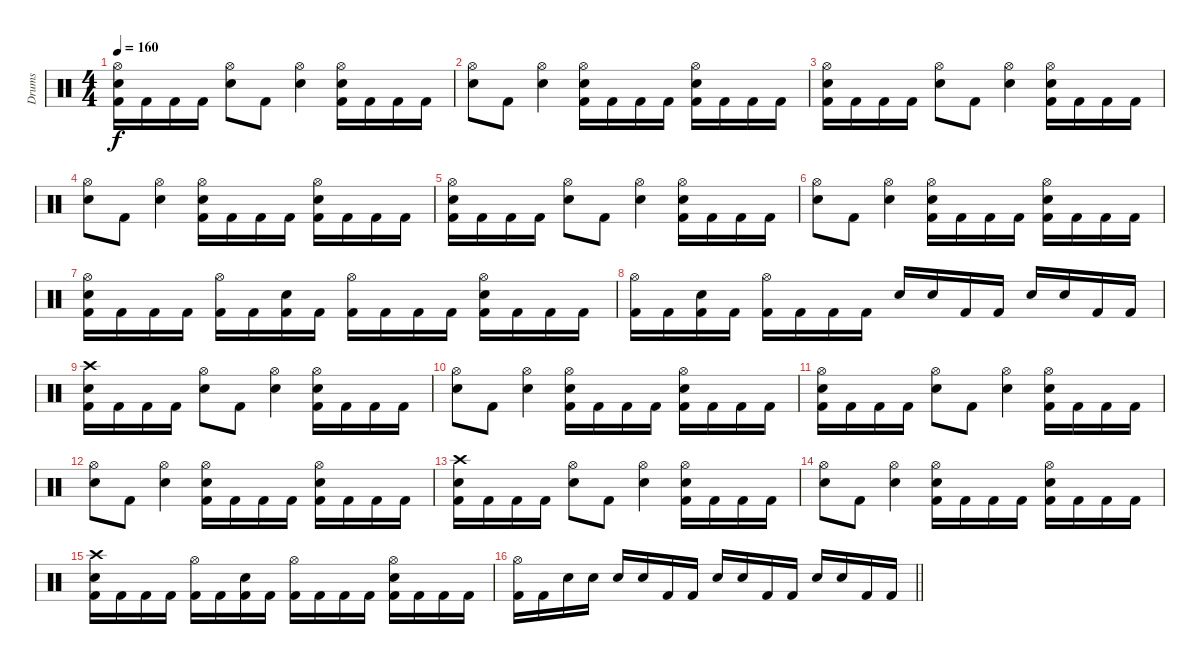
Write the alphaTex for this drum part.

\track ("Drums" "Drums") {instrument percussion}
\staff {score}
\articulation defaults
\ts (4 4)
\tempo 160
\clef neutral
\ks c
("Hi-Hat (open)" "Electric Snare (hit)" "Kick (hit) 2").16{dy f} "Kick (hit) 2".16 "Kick (hit) 2".16 "Kick (hit) 2".16 ("Hi-Hat (open)" "Electric Snare (hit)").8 "Kick (hit) 2".8 ("Hi-Hat (open)" "Electric Snare (hit)").4 ("Hi-Hat (open)" "Electric Snare (hit)" "Kick (hit) 2").16 "Kick (hit) 2".16 "Kick (hit) 2".16 "Kick (hit) 2".16 |
("Hi-Hat (open)" "Electric Snare (hit)").8 "Kick (hit) 2".8 ("Hi-Hat (open)" "Electric Snare (hit)").4 ("Hi-Hat (open)" "Electric Snare (hit)" "Kick (hit) 2").16 "Kick (hit) 2".16 "Kick (hit) 2".16 "Kick (hit) 2".16 ("Hi-Hat (open)" "Electric Snare (hit)" "Kick (hit) 2").16 "Kick (hit) 2".16 "Kick (hit) 2".16 "Kick (hit) 2".16 |
("Hi-Hat (open)" "Electric Snare (hit)" "Kick (hit) 2").16 "Kick (hit) 2".16 "Kick (hit) 2".16 "Kick (hit) 2".16 ("Hi-Hat (open)" "Electric Snare (hit)").8 "Kick (hit) 2".8 ("Hi-Hat (open)" "Electric Snare (hit)").4 ("Hi-Hat (open)" "Electric Snare (hit)" "Kick (hit) 2").16 "Kick (hit) 2".16 "Kick (hit) 2".16 "Kick (hit) 2".16 |
("Hi-Hat (open)" "Electric Snare (hit)").8 "Kick (hit) 2".8 ("Hi-Hat (open)" "Electric Snare (hit)").4 ("Hi-Hat (open)" "Electric Snare (hit)" "Kick (hit) 2").16 "Kick (hit) 2".16 "Kick (hit) 2".16 "Kick (hit) 2".16 ("Hi-Hat (open)" "Electric Snare (hit)" "Kick (hit) 2").16 "Kick (hit) 2".16 "Kick (hit) 2".16 "Kick (hit) 2".16 |
("Hi-Hat (open)" "Electric Snare (hit)" "Kick (hit) 2").16 "Kick (hit) 2".16 "Kick (hit) 2".16 "Kick (hit) 2".16 ("Hi-Hat (open)" "Electric Snare (hit)").8 "Kick (hit) 2".8 ("Hi-Hat (open)" "Electric Snare (hit)").4 ("Hi-Hat (open)" "Electric Snare (hit)" "Kick (hit) 2").16 "Kick (hit) 2".16 "Kick (hit) 2".16 "Kick (hit) 2".16 |
("Hi-Hat (open)" "Electric Snare (hit)").8 "Kick (hit) 2".8 ("Hi-Hat (open)" "Electric Snare (hit)").4 ("Hi-Hat (open)" "Electric Snare (hit)" "Kick (hit) 2").16 "Kick (hit) 2".16 "Kick (hit) 2".16 "Kick (hit) 2".16 ("Hi-Hat (open)" "Electric Snare (hit)" "Kick (hit) 2").16 "Kick (hit) 2".16 "Kick (hit) 2".16 "Kick (hit) 2".16 |
("Hi-Hat (open)" "Electric Snare (hit)" "Kick (hit) 2").16 "Kick (hit) 2".16 "Kick (hit) 2".16 "Kick (hit) 2".16 ("Hi-Hat (open)" "Kick (hit) 2").16 "Kick (hit) 2".16 ("Electric Snare (hit)" "Kick (hit) 2").16 "Kick (hit) 2".16 ("Hi-Hat (open)" "Kick (hit) 2").16 "Kick (hit) 2".16 "Kick (hit) 2".16 "Kick (hit) 2".16 ("Hi-Hat (open)" "Electric Snare (hit)" "Kick (hit) 2").16 "Kick (hit) 2".16 "Kick (hit) 2".16 "Kick (hit) 2".16 |
("Hi-Hat (open)" "Kick (hit) 2").16 "Kick (hit) 2".16 ("Electric Snare (hit)" "Kick (hit) 2").16 "Kick (hit) 2".16 ("Hi-Hat (open)" "Kick (hit) 2").16 "Kick (hit) 2".16 "Kick (hit) 2".16 "Kick (hit) 2".16 "Electric Snare (hit)".16 "Electric Snare (hit)".16 "Kick (hit) 2".16 "Kick (hit) 2".16 "Electric Snare (hit)".16 "Electric Snare (hit)".16 "Kick (hit) 2".16 "Kick (hit) 2".16 |
("Crash high (hit)" "Electric Snare (hit)" "Kick (hit) 2").16 "Kick (hit) 2".16 "Kick (hit) 2".16 "Kick (hit) 2".16 ("Hi-Hat (open)" "Electric Snare (hit)").8 "Kick (hit) 2".8 ("Hi-Hat (open)" "Electric Snare (hit)").4 ("Hi-Hat (open)" "Electric Snare (hit)" "Kick (hit) 2").16 "Kick (hit) 2".16 "Kick (hit) 2".16 "Kick (hit) 2".16 |
("Hi-Hat (open)" "Electric Snare (hit)").8 "Kick (hit) 2".8 ("Hi-Hat (open)" "Electric Snare (hit)").4 ("Hi-Hat (open)" "Electric Snare (hit)" "Kick (hit) 2").16 "Kick (hit) 2".16 "Kick (hit) 2".16 "Kick (hit) 2".16 ("Hi-Hat (open)" "Electric Snare (hit)" "Kick (hit) 2").16 "Kick (hit) 2".16 "Kick (hit) 2".16 "Kick (hit) 2".16 |
("Hi-Hat (open)" "Electric Snare (hit)" "Kick (hit) 2").16 "Kick (hit) 2".16 "Kick (hit) 2".16 "Kick (hit) 2".16 ("Hi-Hat (open)" "Electric Snare (hit)").8 "Kick (hit) 2".8 ("Hi-Hat (open)" "Electric Snare (hit)").4 ("Hi-Hat (open)" "Electric Snare (hit)" "Kick (hit) 2").16 "Kick (hit) 2".16 "Kick (hit) 2".16 "Kick (hit) 2".16 |
("Hi-Hat (open)" "Electric Snare (hit)").8 "Kick (hit) 2".8 ("Hi-Hat (open)" "Electric Snare (hit)").4 ("Hi-Hat (open)" "Electric Snare (hit)" "Kick (hit) 2").16 "Kick (hit) 2".16 "Kick (hit) 2".16 "Kick (hit) 2".16 ("Hi-Hat (open)" "Electric Snare (hit)" "Kick (hit) 2").16 "Kick (hit) 2".16 "Kick (hit) 2".16 "Kick (hit) 2".16 |
("Crash high (hit)" "Electric Snare (hit)" "Kick (hit) 2").16 "Kick (hit) 2".16 "Kick (hit) 2".16 "Kick (hit) 2".16 ("Hi-Hat (open)" "Electric Snare (hit)").8 "Kick (hit) 2".8 ("Hi-Hat (open)" "Electric Snare (hit)").4 ("Hi-Hat (open)" "Electric Snare (hit)" "Kick (hit) 2").16 "Kick (hit) 2".16 "Kick (hit) 2".16 "Kick (hit) 2".16 |
("Hi-Hat (open)" "Electric Snare (hit)").8 "Kick (hit) 2".8 ("Hi-Hat (open)" "Electric Snare (hit)").4 ("Hi-Hat (open)" "Electric Snare (hit)" "Kick (hit) 2").16 "Kick (hit) 2".16 "Kick (hit) 2".16 "Kick (hit) 2".16 ("Hi-Hat (open)" "Electric Snare (hit)" "Kick (hit) 2").16 "Kick (hit) 2".16 "Kick (hit) 2".16 "Kick (hit) 2".16 |
("Crash high (hit)" "Electric Snare (hit)" "Kick (hit) 2").16 "Kick (hit) 2".16 "Kick (hit) 2".16 "Kick (hit) 2".16 ("Hi-Hat (open)" "Kick (hit) 2").16 "Kick (hit) 2".16 ("Electric Snare (hit)" "Kick (hit) 2").16 "Kick (hit) 2".16 ("Hi-Hat (open)" "Kick (hit) 2").16 "Kick (hit) 2".16 "Kick (hit) 2".16 "Kick (hit) 2".16 ("Hi-Hat (open)" "Electric Snare (hit)" "Kick (hit) 2").16 "Kick (hit) 2".16 "Kick (hit) 2".16 "Kick (hit) 2".16 |
\barLineRight lightlight
("Hi-Hat (open)" "Kick (hit) 2").16 "Kick (hit) 2".16 "Electric Snare (hit)".16 "Electric Snare (hit)".16 "Electric Snare (hit)".16 "Electric Snare (hit)".16 "Kick (hit) 2".16 "Kick (hit) 2".16 "Electric Snare (hit)".16 "Electric Snare (hit)".16 "Kick (hit) 2".16 "Kick (hit) 2".16 "Electric Snare (hit)".16 "Electric Snare (hit)".16 "Kick (hit) 2".16 "Kick (hit) 2".16
